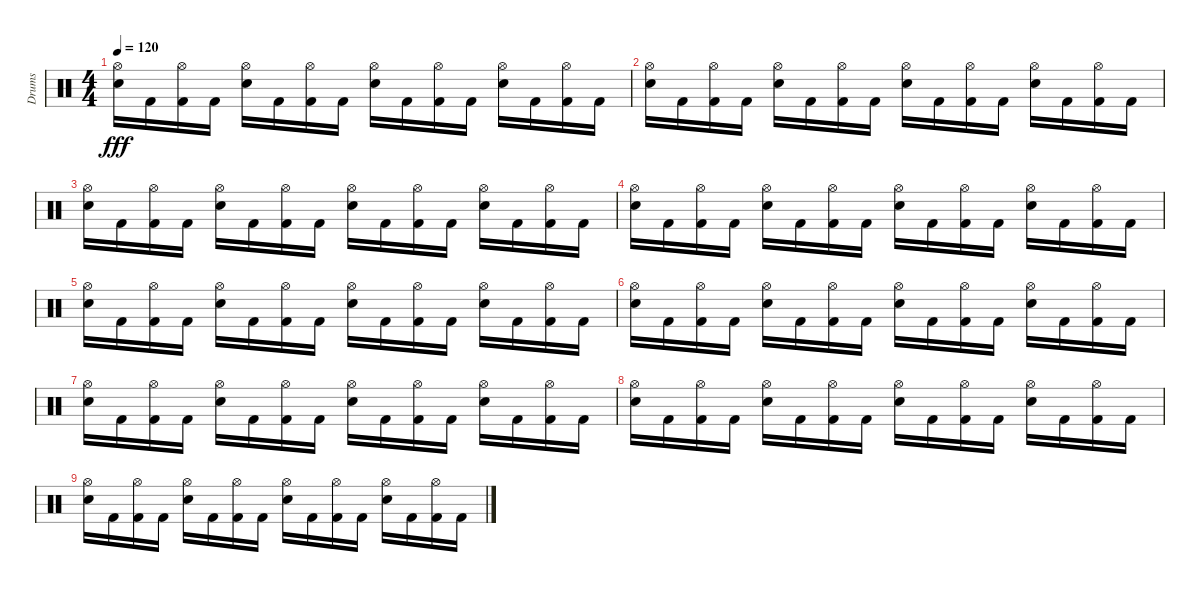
\track ("Drums" "Drums") {instrument percussion}
\staff {score}
\articulation defaults
\ts (4 4)
\tempo 120
\clef neutral
\ks c
("Hi-Hat (open)" "Electric Snare (hit)").16{dy fff volume 8} "Kick (hit) 2".16 ("Hi-Hat (open)" "Kick (hit) 2").16{volume 8} "Kick (hit) 2".16 ("Hi-Hat (open)" "Electric Snare (hit)").16{volume 8} "Kick (hit) 2".16 ("Hi-Hat (open)" "Kick (hit) 2").16{volume 7} "Kick (hit) 2".16 ("Hi-Hat (open)" "Electric Snare (hit)").16 "Kick (hit) 2".16{volume 7} ("Hi-Hat (open)" "Kick (hit) 2").16 "Kick (hit) 2".16{volume 7} ("Hi-Hat (open)" "Electric Snare (hit)").16 "Kick (hit) 2".16{volume 7} ("Hi-Hat (open)" "Kick (hit) 2").16 "Kick (hit) 2".16{volume 7} |
("Hi-Hat (open)" "Electric Snare (hit)").16 "Kick (hit) 2".16{volume 7} ("Hi-Hat (open)" "Kick (hit) 2").16 "Kick (hit) 2".16 ("Hi-Hat (open)" "Electric Snare (hit)").16{volume 7} "Kick (hit) 2".16 ("Hi-Hat (open)" "Kick (hit) 2").16{volume 6} "Kick (hit) 2".16 ("Hi-Hat (open)" "Electric Snare (hit)").16{volume 6} "Kick (hit) 2".16 ("Hi-Hat (open)" "Kick (hit) 2").16{volume 6} "Kick (hit) 2".16 ("Hi-Hat (open)" "Electric Snare (hit)").16{volume 6} "Kick (hit) 2".16 ("Hi-Hat (open)" "Kick (hit) 2").16 "Kick (hit) 2".16{volume 6} |
("Hi-Hat (open)" "Electric Snare (hit)").16 "Kick (hit) 2".16{volume 6} ("Hi-Hat (open)" "Kick (hit) 2").16 "Kick (hit) 2".16{volume 6} ("Hi-Hat (open)" "Electric Snare (hit)").16 "Kick (hit) 2".16{volume 6} ("Hi-Hat (open)" "Kick (hit) 2").16 "Kick (hit) 2".16{volume 6} ("Hi-Hat (open)" "Electric Snare (hit)").16 "Kick (hit) 2".16 ("Hi-Hat (open)" "Kick (hit) 2").16{volume 5} "Kick (hit) 2".16 ("Hi-Hat (open)" "Electric Snare (hit)").16{volume 5} "Kick (hit) 2".16 ("Hi-Hat (open)" "Kick (hit) 2").16{volume 5} "Kick (hit) 2".16 |
("Hi-Hat (open)" "Electric Snare (hit)").16{volume 5} "Kick (hit) 2".16 ("Hi-Hat (open)" "Kick (hit) 2").16{volume 5} "Kick (hit) 2".16 ("Hi-Hat (open)" "Electric Snare (hit)").16 "Kick (hit) 2".16{volume 5} ("Hi-Hat (open)" "Kick (hit) 2").16 "Kick (hit) 2".16{volume 5} ("Hi-Hat (open)" "Electric Snare (hit)").16 "Kick (hit) 2".16{volume 4} ("Hi-Hat (open)" "Kick (hit) 2").16 "Kick (hit) 2".16{volume 4} ("Hi-Hat (open)" "Electric Snare (hit)").16 "Kick (hit) 2".16{volume 4} ("Hi-Hat (open)" "Kick (hit) 2").16 "Kick (hit) 2".16 |
("Hi-Hat (open)" "Electric Snare (hit)").16{volume 4} "Kick (hit) 2".16 ("Hi-Hat (open)" "Kick (hit) 2").16{volume 4} "Kick (hit) 2".16 ("Hi-Hat (open)" "Electric Snare (hit)").16{volume 4} "Kick (hit) 2".16 ("Hi-Hat (open)" "Kick (hit) 2").16{volume 4} "Kick (hit) 2".16 ("Hi-Hat (open)" "Electric Snare (hit)").16 "Kick (hit) 2".16{volume 4} ("Hi-Hat (open)" "Kick (hit) 2").16 "Kick (hit) 2".16{volume 4} ("Hi-Hat (open)" "Electric Snare (hit)").16 "Kick (hit) 2".16{volume 3} ("Hi-Hat (open)" "Kick (hit) 2").16 "Kick (hit) 2".16{volume 3} |
("Hi-Hat (open)" "Electric Snare (hit)").16 "Kick (hit) 2".16{volume 3} ("Hi-Hat (open)" "Kick (hit) 2").16 "Kick (hit) 2".16 ("Hi-Hat (open)" "Electric Snare (hit)").16{volume 3} "Kick (hit) 2".16 ("Hi-Hat (open)" "Kick (hit) 2").16{volume 3} "Kick (hit) 2".16 ("Hi-Hat (open)" "Electric Snare (hit)").16{volume 3} "Kick (hit) 2".16 ("Hi-Hat (open)" "Kick (hit) 2").16{volume 3} "Kick (hit) 2".16 ("Hi-Hat (open)" "Electric Snare (hit)").16{volume 2} "Kick (hit) 2".16 ("Hi-Hat (open)" "Kick (hit) 2").16 "Kick (hit) 2".16{volume 2} |
("Hi-Hat (open)" "Electric Snare (hit)").16 "Kick (hit) 2".16{volume 2} ("Hi-Hat (open)" "Kick (hit) 2").16 "Kick (hit) 2".16{volume 2} ("Hi-Hat (open)" "Electric Snare (hit)").16 "Kick (hit) 2".16{volume 2} ("Hi-Hat (open)" "Kick (hit) 2").16 "Kick (hit) 2".16{volume 2} ("Hi-Hat (open)" "Electric Snare (hit)").16 "Kick (hit) 2".16 ("Hi-Hat (open)" "Kick (hit) 2").16{volume 2} "Kick (hit) 2".16 ("Hi-Hat (open)" "Electric Snare (hit)").16{volume 2} "Kick (hit) 2".16 ("Hi-Hat (open)" "Kick (hit) 2").16{volume 2} "Kick (hit) 2".16 |
("Hi-Hat (open)" "Electric Snare (hit)").16{volume 1} "Kick (hit) 2".16 ("Hi-Hat (open)" "Kick (hit) 2").16{volume 1} "Kick (hit) 2".16 ("Hi-Hat (open)" "Electric Snare (hit)").16 "Kick (hit) 2".16{volume 1} ("Hi-Hat (open)" "Kick (hit) 2").16 "Kick (hit) 2".16{volume 1} ("Hi-Hat (open)" "Electric Snare (hit)").16 "Kick (hit) 2".16{volume 1} ("Hi-Hat (open)" "Kick (hit) 2").16 "Kick (hit) 2".16{volume 1} ("Hi-Hat (open)" "Electric Snare (hit)").16 "Kick (hit) 2".16{volume 1} ("Hi-Hat (open)" "Kick (hit) 2").16 "Kick (hit) 2".16 |
("Hi-Hat (open)" "Electric Snare (hit)").16{volume 0} "Kick (hit) 2".16 ("Hi-Hat (open)" "Kick (hit) 2").16{volume 0} "Kick (hit) 2".16 ("Hi-Hat (open)" "Electric Snare (hit)").16{volume 0} "Kick (hit) 2".16 ("Hi-Hat (open)" "Kick (hit) 2").16{volume 0} "Kick (hit) 2".16 ("Hi-Hat (open)" "Electric Snare (hit)").16{volume 0} "Kick (hit) 2".16 ("Hi-Hat (open)" "Kick (hit) 2").16 "Kick (hit) 2".16 ("Hi-Hat (open)" "Electric Snare (hit)").16 "Kick (hit) 2".16 ("Hi-Hat (open)" "Kick (hit) 2").16 "Kick (hit) 2".16
